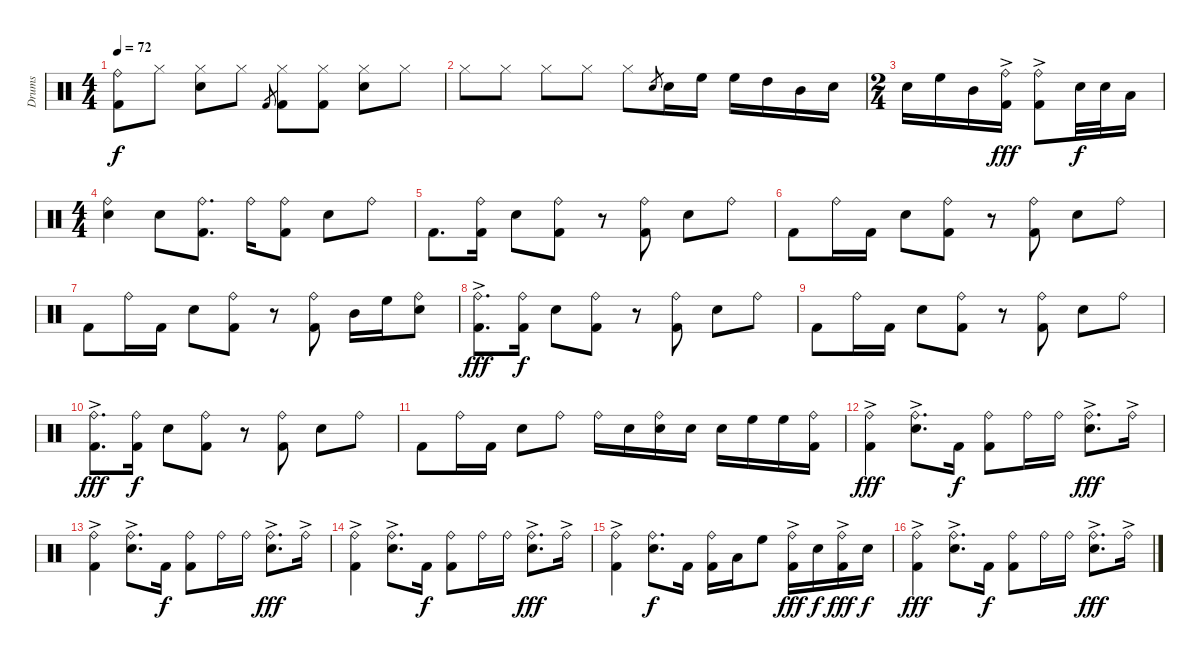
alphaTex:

\track ("Drums" "Drums") {instrument percussion}
\staff {score}
\articulation defaults
\ts (4 4)
\tempo 72
\clef neutral
\ks c
("Kick (hit) 2" "Ride (bell)").8{dy f} "Hi-Hat (closed)".8 ("Snare (hit) 2" "Hi-Hat (closed)").8 "Hi-Hat (closed)".8 "Kick (hit) 2".8{gr} ("Kick (hit) 2" "Hi-Hat (closed)").8 ("Kick (hit) 2" "Hi-Hat (closed)").8 ("Snare (hit) 2" "Hi-Hat (closed)").8 "Hi-Hat (closed)".8 |
"Hi-Hat (closed)".8 "Hi-Hat (closed)".8 "Hi-Hat (closed)".8 "Hi-Hat (closed)".8 "Hi-Hat (closed)".8 "Snare (hit) 2".8{gr} "Snare (hit) 2".16 "High Floor Tom (hit)".16 "High Floor Tom (hit)".16 "High Tom (hit)".16 "Mid Tom (hit)".16 "Snare (hit) 2".16 |
\ts (2 4)
"Snare (hit) 2".16 "High Floor Tom (hit)".16 "Mid Tom (hit)".16 ("Kick (hit) 2" "Ride (bell)"{ac}).16{dy fff} ("Kick (hit) 2" "Ride (bell)"{ac}).8 "Snare (hit) 2".32{dy f} "Snare (hit) 2".32 "Low Floor Tom (hit)".16 |
\ts (4 4)
("Snare (hit) 2" "Ride (bell)").4 "Snare (hit) 2".8 ("Kick (hit) 2" "Ride (bell)").8{d} "Ride (bell)".16 ("Kick (hit) 2" "Ride (bell)").8 "Snare (hit) 2".8 "Ride (bell)".8 |
"Kick (hit) 2".8{d} ("Kick (hit) 2" "Ride (bell)").16 "Snare (hit) 2".8 ("Kick (hit) 2" "Ride (bell)").8 r.8 ("Kick (hit) 2" "Ride (bell)").8 "Snare (hit) 2".8 "Ride (bell)".8 |
"Kick (hit) 2".8 "Ride (bell)".16 "Kick (hit) 2".16 "Snare (hit) 2".8 ("Kick (hit) 2" "Ride (bell)").8 r.8 ("Kick (hit) 2" "Ride (bell)").8 "Snare (hit) 2".8 "Ride (bell)".8 |
"Kick (hit) 2".8 "Ride (bell)".16 "Kick (hit) 2".16 "Snare (hit) 2".8 ("Kick (hit) 2" "Ride (bell)").8 r.8 ("Kick (hit) 2" "Ride (bell)").8 "Mid Tom (hit)".16 "High Floor Tom (hit)".16 ("Snare (hit) 2" "Ride (bell)").8 |
("Kick (hit) 2" "Ride (bell)"{ac}).8{d dy fff} ("Kick (hit) 2" "Ride (bell)").16{dy f} "Snare (hit) 2".8 ("Kick (hit) 2" "Ride (bell)").8 r.8 ("Kick (hit) 2" "Ride (bell)").8 "Snare (hit) 2".8 "Ride (bell)".8 |
"Kick (hit) 2".8 "Ride (bell)".16 "Kick (hit) 2".16 "Snare (hit) 2".8 ("Kick (hit) 2" "Ride (bell)").8 r.8 ("Kick (hit) 2" "Ride (bell)").8 "Snare (hit) 2".8 "Ride (bell)".8 |
("Kick (hit) 2" "Ride (bell)"{ac}).8{d dy fff} ("Kick (hit) 2" "Ride (bell)").16{dy f} "Snare (hit) 2".8 ("Kick (hit) 2" "Ride (bell)").8 r.8 ("Kick (hit) 2" "Ride (bell)").8 "Snare (hit) 2".8 "Ride (bell)".8 |
"Kick (hit) 2".8 "Ride (bell)".16 "Kick (hit) 2".16 "Snare (hit) 2".8 "Ride (bell)".8 "Ride (bell)".16 "Snare (hit) 2".16 ("Snare (hit) 2" "Ride (bell)").16 "Snare (hit) 2".16 "Snare (hit) 2".16 "High Floor Tom (hit)".16 "High Floor Tom (hit)".16 ("Kick (hit) 2" "Ride (bell)").16 |
("Kick (hit) 2" "Ride (bell)"{ac}).4{dy fff} ("Snare (hit) 2" "Ride (bell)"{ac}).8{d} "Kick (hit) 2".16{dy f} ("Kick (hit) 2" "Ride (bell)").8 "Ride (bell)".16 "Ride (bell)".16 ("Snare (hit) 2" "Ride (bell)"{ac}).8{d dy fff} "Ride (bell)"{ac}.16 |
("Kick (hit) 2" "Ride (bell)"{ac}).4 ("Snare (hit) 2" "Ride (bell)"{ac}).8{d} "Kick (hit) 2".16{dy f} ("Kick (hit) 2" "Ride (bell)").8 "Ride (bell)".16 "Ride (bell)".16 ("Snare (hit) 2" "Ride (bell)"{ac}).8{d dy fff} "Ride (bell)"{ac}.16 |
("Kick (hit) 2" "Ride (bell)"{ac}).4 ("Snare (hit) 2" "Ride (bell)"{ac}).8{d} "Kick (hit) 2".16{dy f} ("Kick (hit) 2" "Ride (bell)").8 "Ride (bell)".16 "Ride (bell)".16 ("Snare (hit) 2" "Ride (bell)"{ac}).8{d dy fff} "Ride (bell)"{ac}.16 |
("Kick (hit) 2" "Ride (bell)"{ac}).4 ("Snare (hit) 2" "Ride (bell)").8{d dy f} "Kick (hit) 2".16 ("Kick (hit) 2" "Ride (bell)").16 "Low Tom (hit)".16 "High Floor Tom (hit)".8 ("Kick (hit) 2" "Ride (bell)"{ac}).16{dy fff} "Snare (hit) 2".16{dy f} ("Kick (hit) 2" "Ride (bell)"{ac}).16{dy fff} "Snare (hit) 2".16{dy f} |
("Kick (hit) 2" "Ride (bell)"{ac}).4{dy fff} ("Snare (hit) 2" "Ride (bell)"{ac}).8{d} "Kick (hit) 2".16{dy f} ("Kick (hit) 2" "Ride (bell)").8 "Ride (bell)".16 "Ride (bell)".16 ("Snare (hit) 2" "Ride (bell)"{ac}).8{d dy fff} "Ride (bell)"{ac}.16
